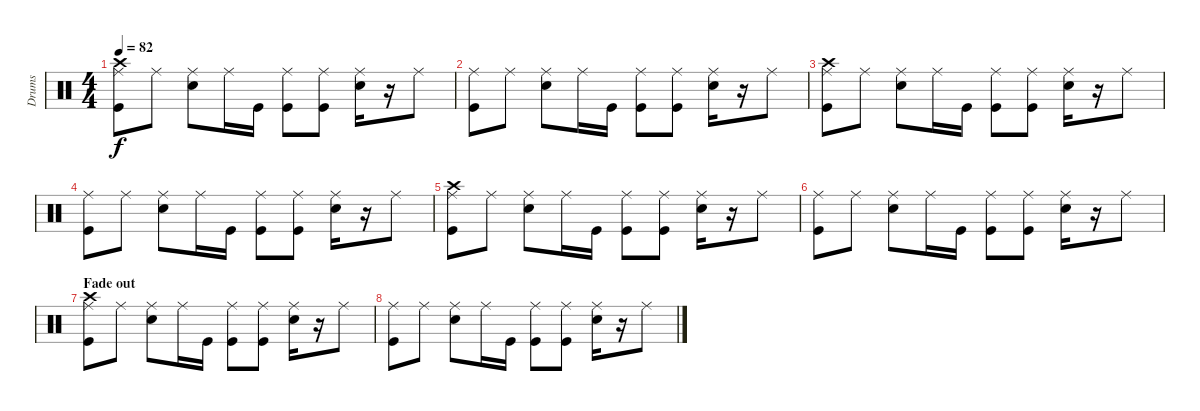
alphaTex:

\track ("Drums" "Drums") {instrument percussion}
\staff {score}
\articulation defaults
\ts (4 4)
\tempo 82
\clef neutral
\ks c
("Kick (hit)" "Crash high (hit)" "Ride (middle)").8{dy f} "Ride (middle)".8 ("Electric Snare (hit)" "Ride (middle)").8 "Ride (middle)".16 "Kick (hit)".16 ("Kick (hit)" "Ride (middle)").8 ("Kick (hit)" "Ride (middle)").8 ("Electric Snare (hit)" "Ride (middle)").16 r.16 "Ride (middle)".8 |
("Kick (hit)" "Ride (middle)").8 "Ride (middle)".8 ("Electric Snare (hit)" "Ride (middle)").8 "Ride (middle)".16 "Kick (hit)".16 ("Kick (hit)" "Ride (middle)").8 ("Kick (hit)" "Ride (middle)").8 ("Electric Snare (hit)" "Ride (middle)").16 r.16 "Ride (middle)".8 |
("Kick (hit)" "Crash high (hit)" "Ride (middle)").8 "Ride (middle)".8 ("Electric Snare (hit)" "Ride (middle)").8 "Ride (middle)".16 "Kick (hit)".16 ("Kick (hit)" "Ride (middle)").8 ("Kick (hit)" "Ride (middle)").8 ("Electric Snare (hit)" "Ride (middle)").16 r.16 "Ride (middle)".8 |
("Kick (hit)" "Ride (middle)").8 "Ride (middle)".8 ("Electric Snare (hit)" "Ride (middle)").8 "Ride (middle)".16 "Kick (hit)".16 ("Kick (hit)" "Ride (middle)").8 ("Kick (hit)" "Ride (middle)").8 ("Electric Snare (hit)" "Ride (middle)").16 r.16 "Ride (middle)".8 |
("Kick (hit)" "Crash high (hit)" "Ride (middle)").8 "Ride (middle)".8 ("Electric Snare (hit)" "Ride (middle)").8 "Ride (middle)".16 "Kick (hit)".16 ("Kick (hit)" "Ride (middle)").8 ("Kick (hit)" "Ride (middle)").8 ("Electric Snare (hit)" "Ride (middle)").16 r.16 "Ride (middle)".8 |
("Kick (hit)" "Ride (middle)").8 "Ride (middle)".8 ("Electric Snare (hit)" "Ride (middle)").8 "Ride (middle)".16 "Kick (hit)".16 ("Kick (hit)" "Ride (middle)").8 ("Kick (hit)" "Ride (middle)").8 ("Electric Snare (hit)" "Ride (middle)").16 r.16 "Ride (middle)".8 |
\section ("" "Fade out")
("Kick (hit)" "Crash high (hit)" "Ride (middle)").8 "Ride (middle)".8 ("Electric Snare (hit)" "Ride (middle)").8 "Ride (middle)".16 "Kick (hit)".16 ("Kick (hit)" "Ride (middle)").8 ("Kick (hit)" "Ride (middle)").8 ("Electric Snare (hit)" "Ride (middle)").16 r.16 "Ride (middle)".8 |
("Kick (hit)" "Ride (middle)").8 "Ride (middle)".8 ("Electric Snare (hit)" "Ride (middle)").8 "Ride (middle)".16 "Kick (hit)".16 ("Kick (hit)" "Ride (middle)").8 ("Kick (hit)" "Ride (middle)").8 ("Electric Snare (hit)" "Ride (middle)").16 r.16 "Ride (middle)".8
